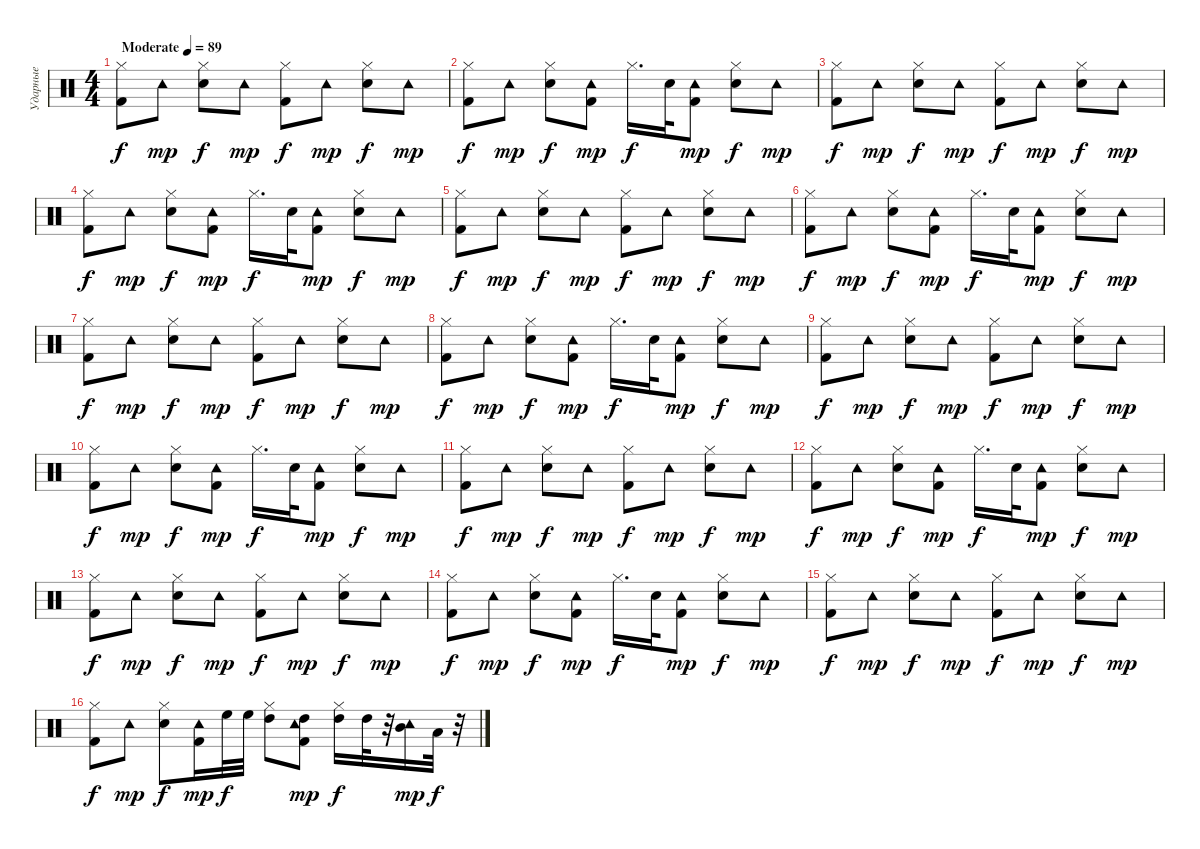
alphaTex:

\track ("Ударные" "Ударные") {instrument percussion}
\staff {score}
\articulation defaults
\ts (4 4)
\tempo (89 "Moderate")
\clef neutral
\ks c
("Kick (hit) 2" "Hi-Hat (closed)").8{dy f} "Tambourine (hit)".8{dy mp} ("Electric Snare (hit)" "Hi-Hat (closed)").8{dy f} "Tambourine (hit)".8{dy mp} ("Kick (hit) 2" "Hi-Hat (closed)").8{dy f} "Tambourine (hit)".8{dy mp} ("Electric Snare (hit)" "Hi-Hat (closed)").8{dy f} "Tambourine (hit)".8{dy mp} |
("Kick (hit) 2" "Hi-Hat (closed)").8{dy f} "Tambourine (hit)".8{dy mp} ("Electric Snare (hit)" "Hi-Hat (closed)").8{dy f} ("Kick (hit) 2" "Tambourine (hit)").8{dy mp} "Hi-Hat (closed)".16{d dy f} "Electric Snare (hit)".32 ("Kick (hit) 2" "Tambourine (hit)").8{dy mp} ("Electric Snare (hit)" "Hi-Hat (closed)").8{dy f} "Tambourine (hit)".8{dy mp} |
("Kick (hit) 2" "Hi-Hat (closed)").8{dy f} "Tambourine (hit)".8{dy mp} ("Electric Snare (hit)" "Hi-Hat (closed)").8{dy f} "Tambourine (hit)".8{dy mp} ("Kick (hit) 2" "Hi-Hat (closed)").8{dy f} "Tambourine (hit)".8{dy mp} ("Electric Snare (hit)" "Hi-Hat (closed)").8{dy f} "Tambourine (hit)".8{dy mp} |
("Kick (hit) 2" "Hi-Hat (closed)").8{dy f} "Tambourine (hit)".8{dy mp} ("Electric Snare (hit)" "Hi-Hat (closed)").8{dy f} ("Kick (hit) 2" "Tambourine (hit)").8{dy mp} "Hi-Hat (closed)".16{d dy f} "Electric Snare (hit)".32 ("Kick (hit) 2" "Tambourine (hit)").8{dy mp} ("Electric Snare (hit)" "Hi-Hat (closed)").8{dy f} "Tambourine (hit)".8{dy mp} |
("Kick (hit) 2" "Hi-Hat (closed)").8{dy f} "Tambourine (hit)".8{dy mp} ("Electric Snare (hit)" "Hi-Hat (closed)").8{dy f} "Tambourine (hit)".8{dy mp} ("Kick (hit) 2" "Hi-Hat (closed)").8{dy f} "Tambourine (hit)".8{dy mp} ("Electric Snare (hit)" "Hi-Hat (closed)").8{dy f} "Tambourine (hit)".8{dy mp} |
("Kick (hit) 2" "Hi-Hat (closed)").8{dy f} "Tambourine (hit)".8{dy mp} ("Electric Snare (hit)" "Hi-Hat (closed)").8{dy f} ("Kick (hit) 2" "Tambourine (hit)").8{dy mp} "Hi-Hat (closed)".16{d dy f} "Electric Snare (hit)".32 ("Kick (hit) 2" "Tambourine (hit)").8{dy mp} ("Electric Snare (hit)" "Hi-Hat (closed)").8{dy f} "Tambourine (hit)".8{dy mp} |
("Kick (hit) 2" "Hi-Hat (closed)").8{dy f} "Tambourine (hit)".8{dy mp} ("Electric Snare (hit)" "Hi-Hat (closed)").8{dy f} "Tambourine (hit)".8{dy mp} ("Kick (hit) 2" "Hi-Hat (closed)").8{dy f} "Tambourine (hit)".8{dy mp} ("Electric Snare (hit)" "Hi-Hat (closed)").8{dy f} "Tambourine (hit)".8{dy mp} |
("Kick (hit) 2" "Hi-Hat (closed)").8{dy f} "Tambourine (hit)".8{dy mp} ("Electric Snare (hit)" "Hi-Hat (closed)").8{dy f} ("Kick (hit) 2" "Tambourine (hit)").8{dy mp} "Hi-Hat (closed)".16{d dy f} "Electric Snare (hit)".32 ("Kick (hit) 2" "Tambourine (hit)").8{dy mp} ("Electric Snare (hit)" "Hi-Hat (closed)").8{dy f} "Tambourine (hit)".8{dy mp} |
("Kick (hit) 2" "Hi-Hat (closed)").8{dy f} "Tambourine (hit)".8{dy mp} ("Electric Snare (hit)" "Hi-Hat (closed)").8{dy f} "Tambourine (hit)".8{dy mp} ("Kick (hit) 2" "Hi-Hat (closed)").8{dy f} "Tambourine (hit)".8{dy mp} ("Electric Snare (hit)" "Hi-Hat (closed)").8{dy f} "Tambourine (hit)".8{dy mp} |
("Kick (hit) 2" "Hi-Hat (closed)").8{dy f} "Tambourine (hit)".8{dy mp} ("Electric Snare (hit)" "Hi-Hat (closed)").8{dy f} ("Kick (hit) 2" "Tambourine (hit)").8{dy mp} "Hi-Hat (closed)".16{d dy f} "Electric Snare (hit)".32 ("Kick (hit) 2" "Tambourine (hit)").8{dy mp} ("Electric Snare (hit)" "Hi-Hat (closed)").8{dy f} "Tambourine (hit)".8{dy mp} |
("Kick (hit) 2" "Hi-Hat (closed)").8{dy f} "Tambourine (hit)".8{dy mp} ("Electric Snare (hit)" "Hi-Hat (closed)").8{dy f} "Tambourine (hit)".8{dy mp} ("Kick (hit) 2" "Hi-Hat (closed)").8{dy f} "Tambourine (hit)".8{dy mp} ("Electric Snare (hit)" "Hi-Hat (closed)").8{dy f} "Tambourine (hit)".8{dy mp} |
("Kick (hit) 2" "Hi-Hat (closed)").8{dy f} "Tambourine (hit)".8{dy mp} ("Electric Snare (hit)" "Hi-Hat (closed)").8{dy f} ("Kick (hit) 2" "Tambourine (hit)").8{dy mp} "Hi-Hat (closed)".16{d dy f} "Electric Snare (hit)".32 ("Kick (hit) 2" "Tambourine (hit)").8{dy mp} ("Electric Snare (hit)" "Hi-Hat (closed)").8{dy f} "Tambourine (hit)".8{dy mp} |
("Kick (hit) 2" "Hi-Hat (closed)").8{dy f} "Tambourine (hit)".8{dy mp} ("Electric Snare (hit)" "Hi-Hat (closed)").8{dy f} "Tambourine (hit)".8{dy mp} ("Kick (hit) 2" "Hi-Hat (closed)").8{dy f} "Tambourine (hit)".8{dy mp} ("Electric Snare (hit)" "Hi-Hat (closed)").8{dy f} "Tambourine (hit)".8{dy mp} |
("Kick (hit) 2" "Hi-Hat (closed)").8{dy f} "Tambourine (hit)".8{dy mp} ("Electric Snare (hit)" "Hi-Hat (closed)").8{dy f} ("Kick (hit) 2" "Tambourine (hit)").8{dy mp} "Hi-Hat (closed)".16{d dy f} "Electric Snare (hit)".32 ("Kick (hit) 2" "Tambourine (hit)").8{dy mp} ("Electric Snare (hit)" "Hi-Hat (closed)").8{dy f} "Tambourine (hit)".8{dy mp} |
("Kick (hit) 2" "Hi-Hat (closed)").8{dy f} "Tambourine (hit)".8{dy mp} ("Electric Snare (hit)" "Hi-Hat (closed)").8{dy f} "Tambourine (hit)".8{dy mp} ("Kick (hit) 2" "Hi-Hat (closed)").8{dy f} "Tambourine (hit)".8{dy mp} ("Electric Snare (hit)" "Hi-Hat (closed)").8{dy f} "Tambourine (hit)".8{dy mp} |
("Kick (hit) 2" "Hi-Hat (closed)").8{dy f} "Tambourine (hit)".8{dy mp} ("Electric Snare (hit)" "Hi-Hat (closed)").8{dy f} ("Kick (hit) 2" "Tambourine (hit)").16{dy mp} "High Floor Tom (hit)".32{dy f} "High Floor Tom (hit)".32 ("High Tom (hit)" "Hi-Hat (closed)").8 ("High Tom (hit)" "Tambourine (hit)" "Kick (hit) 2").8{dy mp} ("High Tom (hit)" "Hi-Hat (closed)").16{dy f} "High Tom (hit)".32 r.32 ("Mid Tom (hit)" "Tambourine (hit)").16{dy mp} "Low Tom (hit)".32{dy f} r.32
